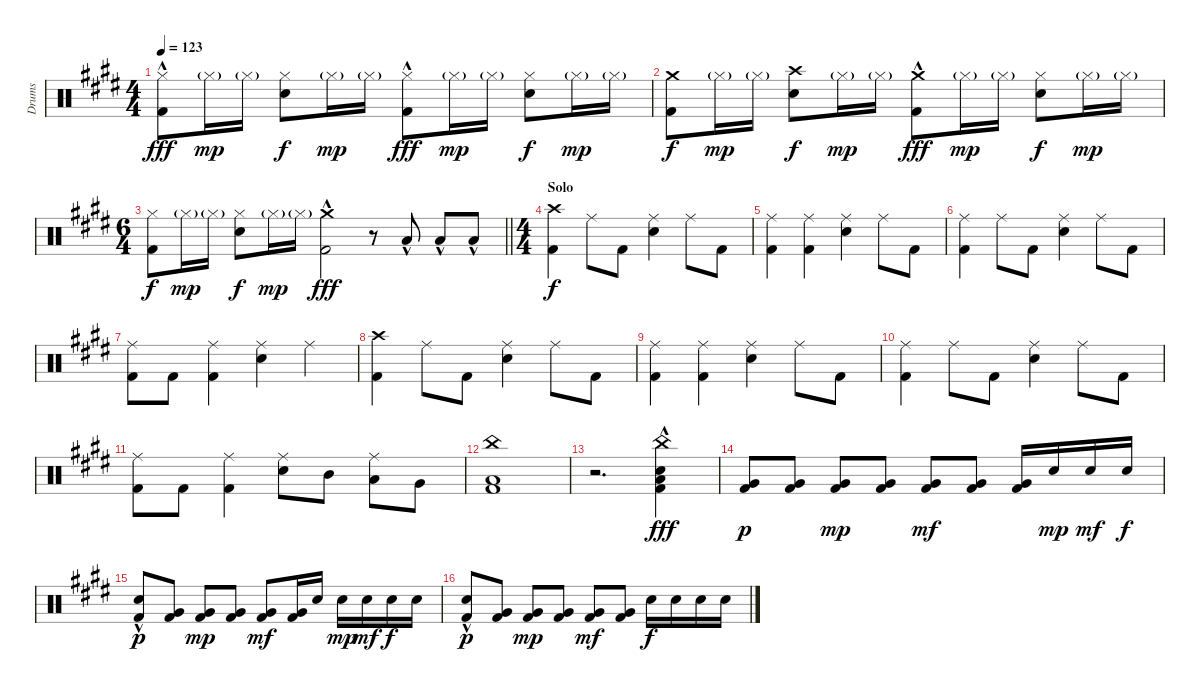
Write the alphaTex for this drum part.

\track ("Drums" "Drums") {instrument percussion}
\staff {score}
\articulation defaults
\ts (4 4)
\tempo 123
\clef neutral
\ks c#minor
("Hi-Hat (closed)"{hac} "Kick (hit) 2").8{dy fff} "Hi-Hat (closed)"{g}.16{dy mp} "Hi-Hat (closed)"{g}.16 ("Hi-Hat (closed)" "Snare (hit) 2").8{dy f} "Hi-Hat (closed)"{g}.16{dy mp} "Hi-Hat (closed)"{g}.16 ("Hi-Hat (closed)"{hac} "Kick (hit) 2"{hac}).8{dy fff} "Hi-Hat (closed)"{g}.16{dy mp} "Hi-Hat (closed)"{g}.16 ("Hi-Hat (closed)" "Snare (hit) 2").8{dy f} "Hi-Hat (closed)"{g}.16{dy mp} "Hi-Hat (closed)"{g}.16 |
("Crash medium (hit)" "Kick (hit) 2").8{dy f} "Hi-Hat (closed)"{g}.16{dy mp} "Hi-Hat (closed)"{g}.16 ("Crash high (hit)" "Snare (hit) 2").8{dy f} "Hi-Hat (closed)"{g}.16{dy mp} "Hi-Hat (closed)"{g}.16 ("Crash medium (hit)" "Kick (hit) 2"{hac}).8{dy fff} "Hi-Hat (closed)"{g}.16{dy mp} "Hi-Hat (closed)"{g}.16 ("Hi-Hat (closed)" "Snare (hit) 2").8{dy f} "Hi-Hat (closed)"{g}.16{dy mp} "Hi-Hat (closed)"{g}.16 |
\ts (6 4)
\barLineRight lightlight
("Hi-Hat (closed)" "Kick (hit) 2").8{dy f} "Hi-Hat (closed)"{g}.16{dy mp} "Hi-Hat (closed)"{g}.16 ("Hi-Hat (closed)" "Snare (hit) 2").8{dy f} "Hi-Hat (closed)"{g}.16{dy mp} "Hi-Hat (closed)"{g}.16 ("Crash medium (hit)" "Kick (hit) 2"{hac}).2{dy fff} r.8 "Low Floor Tom (hit)"{hac}.8 "Low Floor Tom (hit)"{hac}.8 "Low Floor Tom (hit)"{hac}.8 |
\ts (4 4)
\section ("" "Solo")
("Crash high (hit)" "Kick (hit) 2").4{dy f} "Ride (middle)".8 "Kick (hit) 2".8 ("Ride (middle)" "Snare (hit) 2").4 "Ride (middle)".8 "Kick (hit) 2".8 |
("Ride (middle)" "Kick (hit) 2").4 ("Ride (middle)" "Kick (hit) 2").4 ("Ride (middle)" "Snare (hit) 2").4 "Ride (middle)".8 "Kick (hit) 2".8 |
("Ride (middle)" "Kick (hit) 2").4 "Ride (middle)".8 "Kick (hit) 2".8 ("Ride (middle)" "Snare (hit) 2").4 "Ride (middle)".8 "Kick (hit) 2".8 |
("Ride (middle)" "Kick (hit) 2").8 "Kick (hit) 2".8 ("Ride (middle)" "Kick (hit) 2").4 ("Ride (middle)" "Snare (hit) 2").4 "Ride (middle)".4 |
("Crash high (hit)" "Kick (hit) 2").4 "Ride (middle)".8 "Kick (hit) 2".8 ("Ride (middle)" "Snare (hit) 2").4 "Ride (middle)".8 "Kick (hit) 2".8 |
("Ride (middle)" "Kick (hit) 2").4 ("Ride (middle)" "Kick (hit) 2").4 ("Ride (middle)" "Snare (hit) 2").4 "Ride (middle)".8 "Kick (hit) 2".8 |
("Ride (middle)" "Kick (hit) 2").4 "Ride (middle)".8 "Kick (hit) 2".8 ("Ride (middle)" "Snare (hit) 2").4 "Ride (middle)".8 "Kick (hit) 2".8 |
("Ride (middle)" "Kick (hit) 2").8 "Kick (hit) 2".8 ("Ride (middle)" "Kick (hit) 2").4 ("Ride (middle)" "Snare (hit) 2").8 "Mid Tom (hit)".8 ("Ride (middle)" "Low Tom (hit)").8 "Very Low Tom (hit)".8 |
("China (hit)" "Low Floor Tom (hit)" "Kick (hit) 2").1 |
r.2{d} ("China (hit)" "Low Floor Tom (hit)"{hac} "Snare (hit) 2"{hac} "Kick (hit) 2"{hac}).4{dy fff} |
("Very Low Tom (hit)" "Kick (hit) 2").8{dy p} ("Very Low Tom (hit)" "Kick (hit) 2").8 ("Very Low Tom (hit)" "Kick (hit) 2").8{dy mp} ("Very Low Tom (hit)" "Kick (hit) 2").8 ("Very Low Tom (hit)" "Kick (hit) 2").8{dy mf} ("Very Low Tom (hit)" "Kick (hit) 2").8 ("Very Low Tom (hit)" "Kick (hit) 2").16 "Snare (hit) 2".16{dy mp} "Snare (hit) 2".16{dy mf} "Snare (hit) 2".16{dy f} |
("Snare (hit) 2"{hac} "Kick (hit) 2").8{dy p} ("Very Low Tom (hit)" "Kick (hit) 2").8 ("Very Low Tom (hit)" "Kick (hit) 2").8{dy mp} ("Very Low Tom (hit)" "Kick (hit) 2").8 ("Very Low Tom (hit)" "Kick (hit) 2").8{dy mf} ("Very Low Tom (hit)" "Kick (hit) 2").16 "Snare (hit) 2".16 "Snare (hit) 2".16{dy mp} "Snare (hit) 2".16{dy mf} "Snare (hit) 2".16{dy f} "Snare (hit) 2".16 |
("Snare (hit) 2"{hac} "Kick (hit) 2").8{dy p} ("Very Low Tom (hit)" "Kick (hit) 2").8 ("Very Low Tom (hit)" "Kick (hit) 2").8{dy mp} ("Very Low Tom (hit)" "Kick (hit) 2").8 ("Very Low Tom (hit)" "Kick (hit) 2").8{dy mf} ("Very Low Tom (hit)" "Kick (hit) 2").8 "Snare (hit) 2".16{dy f} "Snare (hit) 2".16 "Snare (hit) 2".16 "Snare (hit) 2".16
